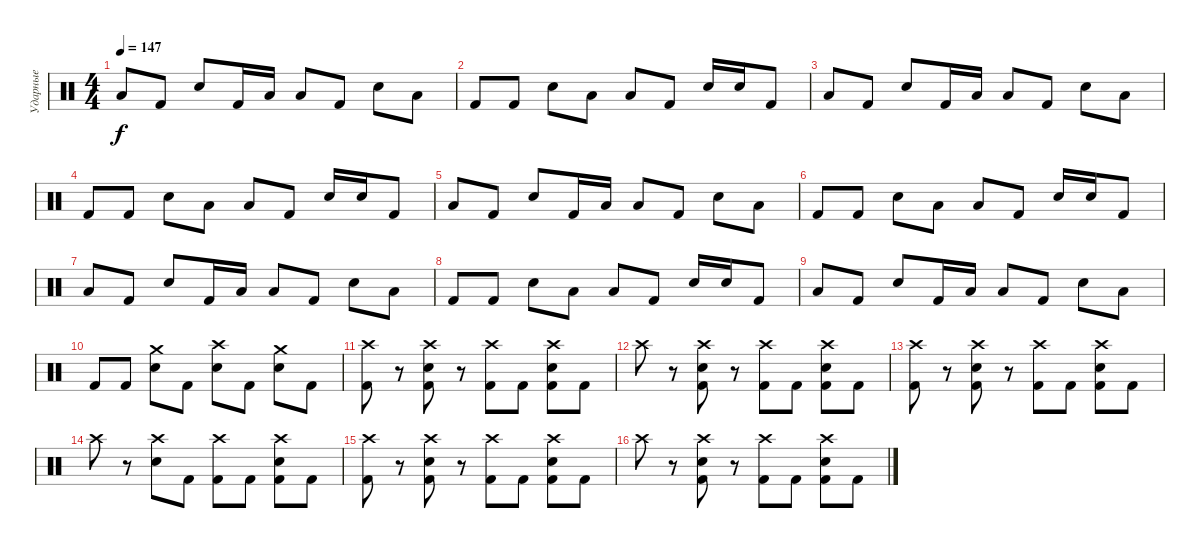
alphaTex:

\track ("Ударные" "Ударные") {instrument percussion}
\staff {score}
\articulation defaults
\ts (4 4)
\tempo 147
\clef neutral
\ks c "Low Floor Tom (hit)".8{dy f} "Kick (hit) 2".8 "Electric Snare (hit)".8 "Kick (hit) 2".16 "Low Floor Tom (hit)".16 "Low Floor Tom (hit)".8 "Kick (hit) 2".8 "Electric Snare (hit)".8 "Low Floor Tom (hit)".8
|
"Kick (hit) 2".8 "Kick (hit) 2".8 "Electric Snare (hit)".8 "Low Floor Tom (hit)".8 "Low Floor Tom (hit)".8 "Kick (hit) 2".8 "Electric Snare (hit)".16 "Electric Snare (hit)".16 "Kick (hit) 2".8 |
"Low Floor Tom (hit)".8 "Kick (hit) 2".8 "Electric Snare (hit)".8 "Kick (hit) 2".16 "Low Floor Tom (hit)".16 "Low Floor Tom (hit)".8 "Kick (hit) 2".8 "Electric Snare (hit)".8 "Low Floor Tom (hit)".8 |
"Kick (hit) 2".8 "Kick (hit) 2".8 "Electric Snare (hit)".8 "Low Floor Tom (hit)".8 "Low Floor Tom (hit)".8 "Kick (hit) 2".8 "Electric Snare (hit)".16 "Electric Snare (hit)".16 "Kick (hit) 2".8 |
"Low Floor Tom (hit)".8 "Kick (hit) 2".8 "Electric Snare (hit)".8 "Kick (hit) 2".16 "Low Floor Tom (hit)".16 "Low Floor Tom (hit)".8 "Kick (hit) 2".8 "Electric Snare (hit)".8 "Low Floor Tom (hit)".8 |
"Kick (hit) 2".8 "Kick (hit) 2".8 "Electric Snare (hit)".8 "Low Floor Tom (hit)".8 "Low Floor Tom (hit)".8 "Kick (hit) 2".8 "Electric Snare (hit)".16 "Electric Snare (hit)".16 "Kick (hit) 2".8 |
"Low Floor Tom (hit)".8 "Kick (hit) 2".8 "Electric Snare (hit)".8 "Kick (hit) 2".16 "Low Floor Tom (hit)".16 "Low Floor Tom (hit)".8 "Kick (hit) 2".8 "Electric Snare (hit)".8 "Low Floor Tom (hit)".8 |
"Kick (hit) 2".8 "Kick (hit) 2".8 "Electric Snare (hit)".8 "Low Floor Tom (hit)".8 "Low Floor Tom (hit)".8 "Kick (hit) 2".8 "Electric Snare (hit)".16 "Electric Snare (hit)".16 "Kick (hit) 2".8 |
"Low Floor Tom (hit)".8 "Kick (hit) 2".8 "Electric Snare (hit)".8 "Kick (hit) 2".16 "Low Floor Tom (hit)".16 "Low Floor Tom (hit)".8 "Kick (hit) 2".8 "Electric Snare (hit)".8 "Low Floor Tom (hit)".8 |
"Kick (hit) 2".8 "Kick (hit) 2".8 ("Crash medium (hit)" "Electric Snare (hit)").8 "Kick (hit) 2".8 ("Crash high (hit)" "Electric Snare (hit)").8 "Kick (hit) 2".8 ("Crash medium (hit)" "Electric Snare (hit)").8 "Kick (hit) 2".8 |
("Crash high (hit)" "Kick (hit) 2").8 r.8 ("Crash high (hit)" "Electric Snare (hit)" "Kick (hit) 2").8 r.8 ("Crash high (hit)" "Kick (hit) 2").8 "Kick (hit) 2".8 ("Crash high (hit)" "Electric Snare (hit)" "Kick (hit) 2").8 "Kick (hit) 2".8 |
"Crash high (hit)".8 r.8 ("Crash high (hit)" "Electric Snare (hit)" "Kick (hit) 2").8 r.8 ("Crash high (hit)" "Kick (hit) 2").8 "Kick (hit) 2".8 ("Crash high (hit)" "Electric Snare (hit)" "Kick (hit) 2").8 "Kick (hit) 2".8 |
("Crash high (hit)" "Kick (hit) 2").8 r.8 ("Crash high (hit)" "Electric Snare (hit)" "Kick (hit) 2").8 r.8 ("Crash high (hit)" "Kick (hit) 2").8 "Kick (hit) 2".8 ("Crash high (hit)" "Electric Snare (hit)" "Kick (hit) 2").8 "Kick (hit) 2".8 |
"Crash high (hit)".8 r.8 ("Crash high (hit)" "Electric Snare (hit)").8 "Kick (hit) 2".8 ("Crash high (hit)" "Kick (hit) 2").8 "Kick (hit) 2".8 ("Crash high (hit)" "Electric Snare (hit)" "Kick (hit) 2").8 "Kick (hit) 2".8 |
("Crash high (hit)" "Kick (hit) 2").8 r.8 ("Crash high (hit)" "Electric Snare (hit)" "Kick (hit) 2").8 r.8 ("Crash high (hit)" "Kick (hit) 2").8 "Kick (hit) 2".8 ("Crash high (hit)" "Electric Snare (hit)" "Kick (hit) 2").8 "Kick (hit) 2".8 |
"Crash high (hit)".8 r.8 ("Crash high (hit)" "Electric Snare (hit)" "Kick (hit) 2").8 r.8 ("Crash high (hit)" "Kick (hit) 2").8 "Kick (hit) 2".8 ("Crash high (hit)" "Electric Snare (hit)" "Kick (hit) 2").8 "Kick (hit) 2".8
